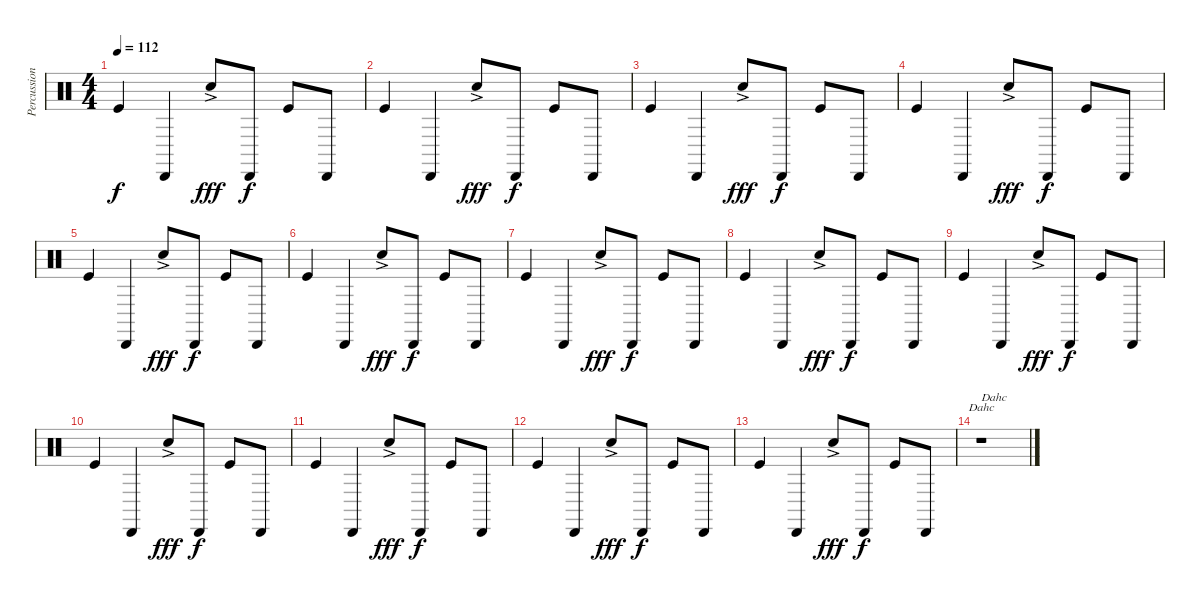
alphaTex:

\track ("Percussion" "Percussion") {instrument percussion}
\staff {score}
\articulation defaults
\chord ("Dahc")
\ts (4 4)
\tempo 112
\clef neutral
\ks c "Kick (hit)".4{dy f} "Cabasa (hit)".4 "Snare (hit) 2"{ac}.8{dy fff} "Cabasa (hit)".8{dy f} "Kick (hit)".8 "Cabasa (hit)".8
|
"Kick (hit)".4 "Cabasa (hit)".4 "Snare (hit) 2"{ac}.8{dy fff} "Cabasa (hit)".8{dy f} "Kick (hit)".8 "Cabasa (hit)".8 |
"Kick (hit)".4 "Cabasa (hit)".4 "Snare (hit) 2"{ac}.8{dy fff} "Cabasa (hit)".8{dy f} "Kick (hit)".8 "Cabasa (hit)".8 |
"Kick (hit)".4 "Cabasa (hit)".4 "Snare (hit) 2"{ac}.8{dy fff} "Cabasa (hit)".8{dy f} "Kick (hit)".8 "Cabasa (hit)".8 |
"Kick (hit)".4 "Cabasa (hit)".4 "Snare (hit) 2"{ac}.8{dy fff} "Cabasa (hit)".8{dy f} "Kick (hit)".8 "Cabasa (hit)".8 |
"Kick (hit)".4 "Cabasa (hit)".4 "Snare (hit) 2"{ac}.8{dy fff} "Cabasa (hit)".8{dy f} "Kick (hit)".8 "Cabasa (hit)".8 |
"Kick (hit)".4 "Cabasa (hit)".4 "Snare (hit) 2"{ac}.8{dy fff} "Cabasa (hit)".8{dy f} "Kick (hit)".8 "Cabasa (hit)".8 |
"Kick (hit)".4 "Cabasa (hit)".4 "Snare (hit) 2"{ac}.8{dy fff} "Cabasa (hit)".8{dy f} "Kick (hit)".8 "Cabasa (hit)".8 |
"Kick (hit)".4{volume 0} "Cabasa (hit)".4 "Snare (hit) 2"{ac}.8{dy fff} "Cabasa (hit)".8{dy f} "Kick (hit)".8 "Cabasa (hit)".8 |
"Kick (hit)".4 "Cabasa (hit)".4 "Snare (hit) 2"{ac}.8{dy fff} "Cabasa (hit)".8{dy f} "Kick (hit)".8 "Cabasa (hit)".8 |
"Kick (hit)".4 "Cabasa (hit)".4 "Snare (hit) 2"{ac}.8{dy fff} "Cabasa (hit)".8{dy f} "Kick (hit)".8 "Cabasa (hit)".8 |
"Kick (hit)".4 "Cabasa (hit)".4 "Snare (hit) 2"{ac}.8{dy fff} "Cabasa (hit)".8{dy f} "Kick (hit)".8 "Cabasa (hit)".8 |
"Kick (hit)".4 "Cabasa (hit)".4 "Snare (hit) 2"{ac}.8{dy fff} "Cabasa (hit)".8{dy f} "Kick (hit)".8 "Cabasa (hit)".8 |
r.1{ch "Dahc" txt "Dahc"}
